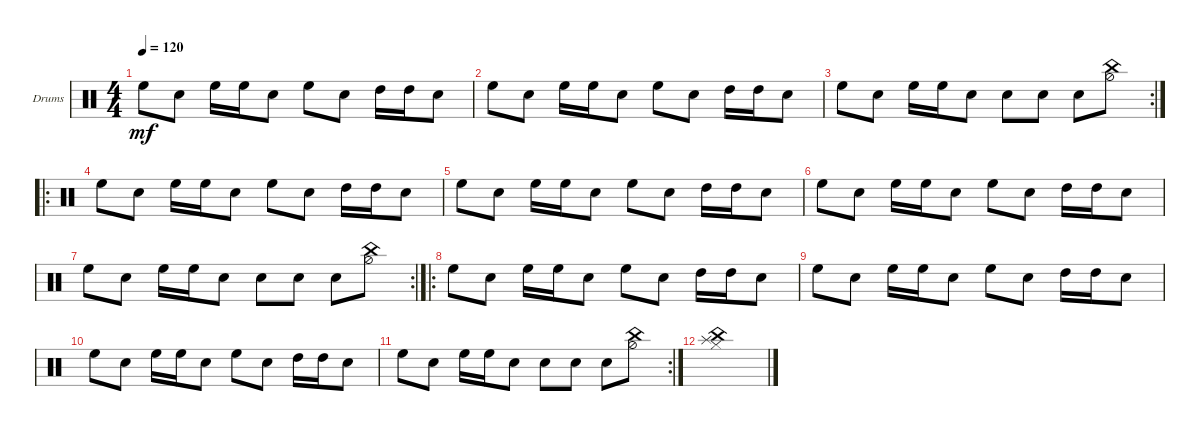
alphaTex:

\defaultSystemsLayout 4
\bracketExtendMode groupsimilarinstruments
\firstSystemTrackNameOrientation horizontal
\otherSystemsTrackNameOrientation horizontal
\track ("Drumkit" "Drums") {instrument percussion}
\staff {score}
\articulation defaults
\ts (4 4)
\tempo 120
\clef neutral
\ks c "High Floor Tom (hit)".8{dy mf} "Snare (hit) 2".8 "High Floor Tom (hit)".16 "High Floor Tom (hit)".16 "Snare (hit) 2".8 "High Floor Tom (hit)".8 "Snare (hit) 2".8 "High Tom (hit)".16 "High Tom (hit)".16 "Snare (hit) 2".8
|
"High Floor Tom (hit)".8 "Snare (hit) 2".8 "High Floor Tom (hit)".16 "High Floor Tom (hit)".16 "Snare (hit) 2".8 "High Floor Tom (hit)".8 "Snare (hit) 2".8 "High Tom (hit)".16 "High Tom (hit)".16 "Snare (hit) 2".8 |
\rc 2 "High Floor Tom (hit)".8 "Snare (hit) 2".8 "High Floor Tom (hit)".16 "High Floor Tom (hit)".16 "Snare (hit) 2".8 "Snare (hit) 2".8 "Snare (hit) 2".8 "Snare (hit) 2".8
("Hi-Hat (half)" "China (hit)").8 |
\ro "High Floor Tom (hit)".8 "Snare (hit) 2".8 "High Floor Tom (hit)".16 "High Floor Tom (hit)".16 "Snare (hit) 2".8 "High Floor Tom (hit)".8 "Snare (hit) 2".8 "High Tom (hit)".16 "High Tom (hit)".16 "Snare (hit) 2".8
|
"High Floor Tom (hit)".8 "Snare (hit) 2".8 "High Floor Tom (hit)".16 "High Floor Tom (hit)".16 "Snare (hit) 2".8 "High Floor Tom (hit)".8 "Snare (hit) 2".8 "High Tom (hit)".16 "High Tom (hit)".16 "Snare (hit) 2".8 |
"High Floor Tom (hit)".8 "Snare (hit) 2".8 "High Floor Tom (hit)".16 "High Floor Tom (hit)".16 "Snare (hit) 2".8 "High Floor Tom (hit)".8 "Snare (hit) 2".8 "High Tom (hit)".16 "High Tom (hit)".16 "Snare (hit) 2".8 |
\rc 2 "High Floor Tom (hit)".8 "Snare (hit) 2".8 "High Floor Tom (hit)".16 "High Floor Tom (hit)".16 "Snare (hit) 2".8 "Snare (hit) 2".8 "Snare (hit) 2".8 "Snare (hit) 2".8
("Hi-Hat (half)" "China (hit)").8 |
\ro "High Floor Tom (hit)".8 "Snare (hit) 2".8 "High Floor Tom (hit)".16 "High Floor Tom (hit)".16 "Snare (hit) 2".8 "High Floor Tom (hit)".8 "Snare (hit) 2".8 "High Tom (hit)".16 "High Tom (hit)".16 "Snare (hit) 2".8
|
"High Floor Tom (hit)".8 "Snare (hit) 2".8 "High Floor Tom (hit)".16 "High Floor Tom (hit)".16 "Snare (hit) 2".8 "High Floor Tom (hit)".8 "Snare (hit) 2".8 "High Tom (hit)".16 "High Tom (hit)".16 "Snare (hit) 2".8 |
"High Floor Tom (hit)".8 "Snare (hit) 2".8 "High Floor Tom (hit)".16 "High Floor Tom (hit)".16 "Snare (hit) 2".8 "High Floor Tom (hit)".8 "Snare (hit) 2".8 "High Tom (hit)".16 "High Tom (hit)".16 "Snare (hit) 2".8 |
\rc 2 "High Floor Tom (hit)".8 "Snare (hit) 2".8 "High Floor Tom (hit)".16 "High Floor Tom (hit)".16 "Snare (hit) 2".8 "Snare (hit) 2".8 "Snare (hit) 2".8 "Snare (hit) 2".8
("Hi-Hat (half)" "China (hit)").8 |
("Splash (hit)" "China (hit)" "Hi-Hat (closed)").1
